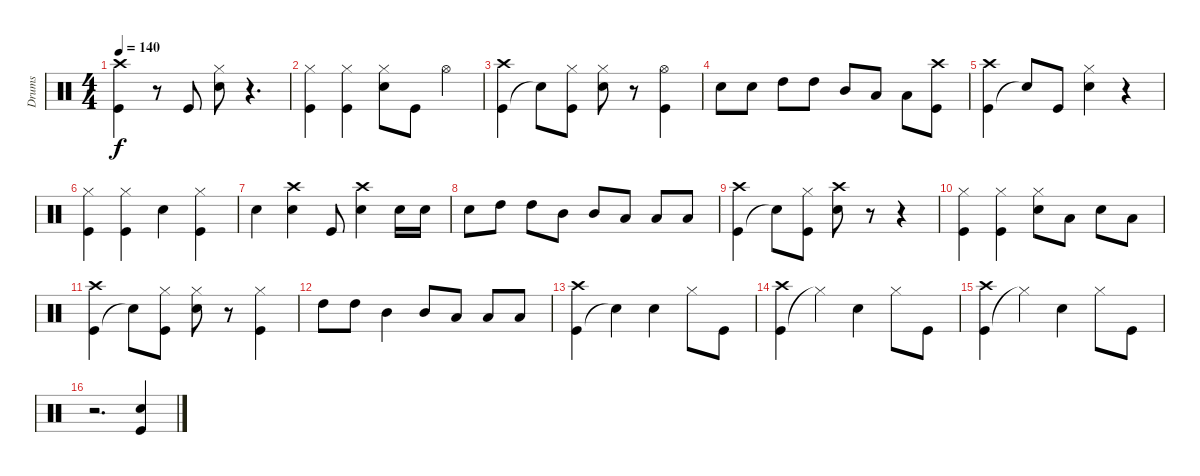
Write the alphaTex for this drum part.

\track ("Drums" "Drums") {instrument percussion}
\staff {score}
\articulation defaults
\ts (4 4)
\tempo 140
\clef neutral
\ks c
("Kick (hit)" "Crash high (hit)").4{dy f} r.8 "Kick (hit)".8 ("Snare (hit) 2" "Hi-Hat (closed)").8 r.4{d} |
("Kick (hit)" "Hi-Hat (closed)").4 ("Kick (hit)" "Hi-Hat (closed)").4 ("Snare (hit) 2" "Hi-Hat (closed)").8 "Kick (hit)".8 "Hi-Hat (open)".4 |
("Kick (hit)" "Crash high (hit)").4 "Snare (hit)"{t}.8 ("Kick (hit)" "Hi-Hat (closed)").8 ("Snare (hit) 2" "Hi-Hat (closed)").8 r.8 ("Kick (hit)" "Hi-Hat (open)").4 |
"Snare (hit) 2".8 "Snare (hit) 2".8 "High Tom (hit)".8 "High Tom (hit)".8 "Mid Tom (hit)".8 "Low Tom (hit)".8 "Low Floor Tom (hit)".8 ("Kick (hit)" "Crash high (hit)").8 |
("Kick (hit)" "Crash high (hit)").4 "Snare (hit)"{t}.8 "Kick (hit)".8 ("Snare (hit) 2" "Hi-Hat (closed)").4 r.4 |
("Kick (hit)" "Hi-Hat (closed)").4 ("Kick (hit)" "Hi-Hat (closed)").4 "Snare (hit) 2".4 ("Kick (hit)" "Hi-Hat (closed)").4 |
"Snare (hit) 2".4 ("Snare (hit) 2" "Crash high (hit)").4 "Kick (hit)".8 ("Snare (hit) 2" "Crash high (hit)").4 "Snare (hit) 2".16 "Snare (hit) 2".16 |
"Snare (hit) 2".8 "High Tom (hit)".8 "High Tom (hit)".8 "Mid Tom (hit)".8 "Mid Tom (hit)".8 "Low Tom (hit)".8 "Low Tom (hit)".8 "Low Floor Tom (hit)".8 |
("Kick (hit)" "Crash high (hit)").4 "Snare (hit)"{t}.8 ("Kick (hit)" "Hi-Hat (closed)").8 ("Snare (hit) 2" "Crash high (hit)").8 r.8 r.4 |
("Kick (hit)" "Hi-Hat (closed)").4 ("Kick (hit)" "Hi-Hat (closed)").4 ("Snare (hit) 2" "Hi-Hat (closed)").8 "Low Floor Tom (hit)".8 "Snare (hit) 2".8 "Low Floor Tom (hit)".8 |
("Kick (hit)" "Crash high (hit)").4 "Snare (hit)"{t}.8 ("Kick (hit)" "Hi-Hat (closed)").8 ("Snare (hit) 2" "Hi-Hat (closed)").8 r.8 ("Kick (hit)" "Hi-Hat (closed)").4 |
"High Tom (hit)".8 "High Tom (hit)".8 "Mid Tom (hit)".4 "Mid Tom (hit)".8 "Low Tom (hit)".8 "Low Tom (hit)".8 "Low Floor Tom (hit)".8 |
("Kick (hit)" "Crash high (hit)").4 "Snare (hit) 2"{t}.4 "Snare (hit) 2".4 "Hi-Hat (closed)".8 "Kick (hit)".8 |
("Kick (hit)" "Crash high (hit)").4 "Hi-Hat (closed)"{t}.4 "Snare (hit) 2".4 "Hi-Hat (closed)".8 "Kick (hit)".8 |
("Kick (hit)" "Crash high (hit)").4 "Hi-Hat (closed)"{t}.4 "Snare (hit) 2".4 "Hi-Hat (closed)".8 "Kick (hit)".8 |
r.2{d} ("Kick (hit)" "Snare (hit) 2").4
